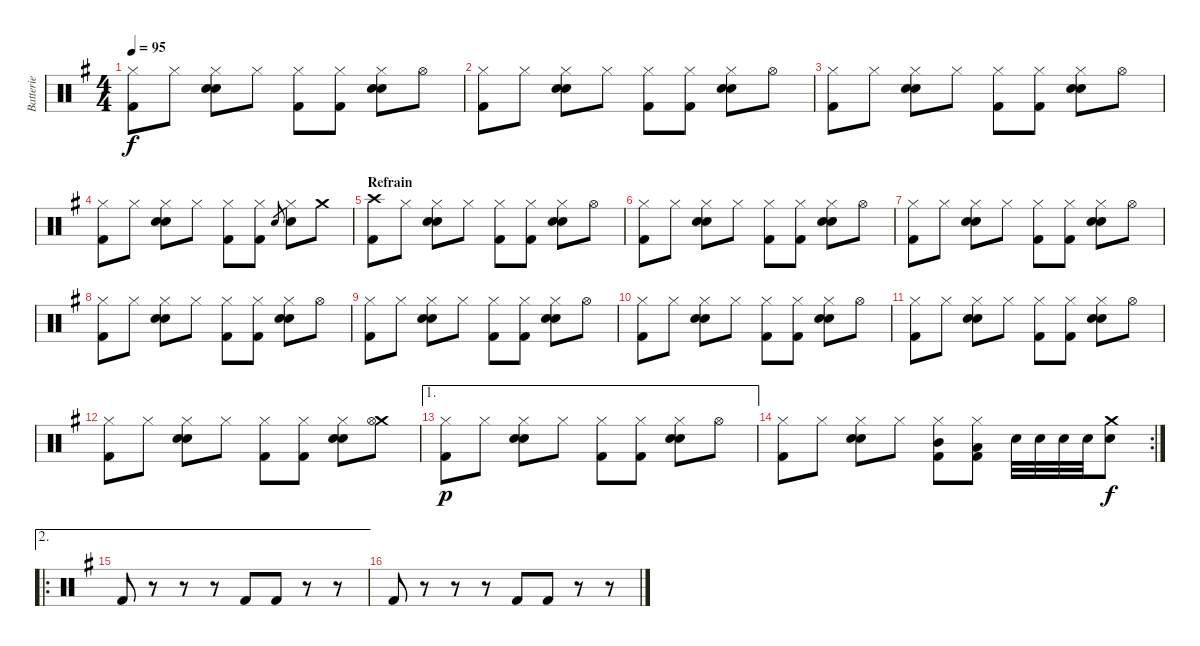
\track ("Batterie" "Batterie") {instrument percussion}
\staff {score}
\articulation defaults
\ts (4 4)
\tempo 95
\clef neutral
\ks g
("Hi-Hat (closed)" "Kick (hit) 2").8{dy f} "Hi-Hat (closed)".8 ("Hi-Hat (closed)" "Hand Clap (hit)" "Snare (hit) 2").8 "Hi-Hat (closed)".8 ("Hi-Hat (closed)" "Kick (hit) 2").8 ("Hi-Hat (closed)" "Kick (hit) 2").8 ("Hi-Hat (closed)" "Hand Clap (hit)" "Snare (hit) 2").8 "Hi-Hat (open)".8 |
("Hi-Hat (closed)" "Kick (hit) 2").8 "Hi-Hat (closed)".8 ("Hi-Hat (closed)" "Hand Clap (hit)" "Snare (hit) 2").8 "Hi-Hat (closed)".8 ("Hi-Hat (closed)" "Kick (hit) 2").8 ("Hi-Hat (closed)" "Kick (hit) 2").8 ("Hi-Hat (closed)" "Hand Clap (hit)" "Snare (hit) 2").8 "Hi-Hat (open)".8 |
("Hi-Hat (closed)" "Kick (hit) 2").8 "Hi-Hat (closed)".8 ("Hi-Hat (closed)" "Hand Clap (hit)" "Snare (hit) 2").8 "Hi-Hat (closed)".8 ("Hi-Hat (closed)" "Kick (hit) 2").8 ("Hi-Hat (closed)" "Kick (hit) 2").8 ("Hi-Hat (closed)" "Hand Clap (hit)" "Snare (hit) 2").8 "Hi-Hat (open)".8 |
("Hi-Hat (closed)" "Kick (hit) 2").8 "Hi-Hat (closed)".8 ("Hi-Hat (closed)" "Hand Clap (hit)" "Snare (hit) 2").8 "Hi-Hat (closed)".8 ("Hi-Hat (closed)" "Kick (hit) 2").8 ("Hi-Hat (closed)" "Kick (hit) 2").8 "Snare (hit) 2".8{gr} ("Hi-Hat (closed)" "Snare (hit) 2").8 "Crash medium (hit)".8 |
\section ("" "Refrain")
("Crash high (hit)" "Kick (hit) 2").8 "Hi-Hat (closed)".8 ("Hi-Hat (closed)" "Hand Clap (hit)" "Snare (hit) 2").8 "Hi-Hat (closed)".8 ("Hi-Hat (closed)" "Kick (hit) 2").8 ("Hi-Hat (closed)" "Kick (hit) 2").8 ("Hi-Hat (closed)" "Hand Clap (hit)" "Snare (hit) 2").8 "Hi-Hat (open)".8 |
("Hi-Hat (closed)" "Kick (hit) 2").8 "Hi-Hat (closed)".8 ("Hi-Hat (closed)" "Hand Clap (hit)" "Snare (hit) 2").8 "Hi-Hat (closed)".8 ("Hi-Hat (closed)" "Kick (hit) 2").8 ("Hi-Hat (closed)" "Kick (hit) 2").8 ("Hi-Hat (closed)" "Hand Clap (hit)" "Snare (hit) 2").8 "Hi-Hat (open)".8 |
("Hi-Hat (closed)" "Kick (hit) 2").8 "Hi-Hat (closed)".8 ("Hi-Hat (closed)" "Hand Clap (hit)" "Snare (hit) 2").8 "Hi-Hat (closed)".8 ("Hi-Hat (closed)" "Kick (hit) 2").8 ("Hi-Hat (closed)" "Kick (hit) 2").8 ("Hi-Hat (closed)" "Hand Clap (hit)" "Snare (hit) 2").8 "Hi-Hat (open)".8 |
("Hi-Hat (closed)" "Kick (hit) 2").8 "Hi-Hat (closed)".8 ("Hi-Hat (closed)" "Hand Clap (hit)" "Snare (hit) 2").8 "Hi-Hat (closed)".8 ("Hi-Hat (closed)" "Kick (hit) 2").8 ("Hi-Hat (closed)" "Kick (hit) 2").8 ("Hi-Hat (closed)" "Hand Clap (hit)" "Snare (hit) 2").8 "Hi-Hat (open)".8 |
("Hi-Hat (closed)" "Kick (hit) 2").8 "Hi-Hat (closed)".8 ("Hi-Hat (closed)" "Hand Clap (hit)" "Snare (hit) 2").8 "Hi-Hat (closed)".8 ("Hi-Hat (closed)" "Kick (hit) 2").8 ("Hi-Hat (closed)" "Kick (hit) 2").8 ("Hi-Hat (closed)" "Hand Clap (hit)" "Snare (hit) 2").8 "Hi-Hat (open)".8 |
("Hi-Hat (closed)" "Kick (hit) 2").8 "Hi-Hat (closed)".8 ("Hi-Hat (closed)" "Hand Clap (hit)" "Snare (hit) 2").8 "Hi-Hat (closed)".8 ("Hi-Hat (closed)" "Kick (hit) 2").8 ("Hi-Hat (closed)" "Kick (hit) 2").8 ("Hi-Hat (closed)" "Hand Clap (hit)" "Snare (hit) 2").8 "Hi-Hat (open)".8 |
("Hi-Hat (closed)" "Kick (hit) 2").8 "Hi-Hat (closed)".8 ("Hi-Hat (closed)" "Hand Clap (hit)" "Snare (hit) 2").8 "Hi-Hat (closed)".8 ("Hi-Hat (closed)" "Kick (hit) 2").8 ("Hi-Hat (closed)" "Kick (hit) 2").8 ("Hi-Hat (closed)" "Hand Clap (hit)" "Snare (hit) 2").8 "Hi-Hat (open)".8 |
("Hi-Hat (closed)" "Kick (hit) 2").8 "Hi-Hat (closed)".8 ("Hi-Hat (closed)" "Hand Clap (hit)" "Snare (hit) 2").8 "Hi-Hat (closed)".8 ("Hi-Hat (closed)" "Kick (hit) 2").8 ("Hi-Hat (closed)" "Kick (hit) 2").8 ("Hi-Hat (closed)" "Hand Clap (hit)" "Snare (hit) 2").8 ("Crash medium (hit)" "Hi-Hat (open)").8 |
\ae 1
("Hi-Hat (closed)" "Kick (hit) 2").8{dy p} "Hi-Hat (closed)".8 ("Hi-Hat (closed)" "Hand Clap (hit)" "Snare (hit) 2").8 "Hi-Hat (closed)".8 ("Hi-Hat (closed)" "Kick (hit) 2").8 ("Hi-Hat (closed)" "Kick (hit) 2").8 ("Hi-Hat (closed)" "Hand Clap (hit)" "Snare (hit) 2").8 "Hi-Hat (open)".8 |
\rc 2
("Hi-Hat (closed)" "Kick (hit) 2").8 "Hi-Hat (closed)".8 ("Hi-Hat (closed)" "Hand Clap (hit)" "Snare (hit) 2").8 "Hi-Hat (closed)".8 ("Hi-Hat (closed)" "Mid Tom (hit)" "Kick (hit) 2").8 ("Hi-Hat (closed)" "Low Tom (hit)" "Kick (hit) 2").8 "Snare (hit) 2".32 "Snare (hit) 2".32 "Snare (hit) 2".32 "Snare (hit) 2".32 ("Crash medium (hit)" "Snare (hit) 2").8{dy f} |
\ae 2
\ro "Kick (hit) 2".8
r.8 r.8 r.8 "Kick (hit) 2".8 "Kick (hit) 2".8 r.8 r.8 |
"Kick (hit) 2".8 r.8 r.8 r.8 "Kick (hit) 2".8 "Kick (hit) 2".8 r.8 r.8
